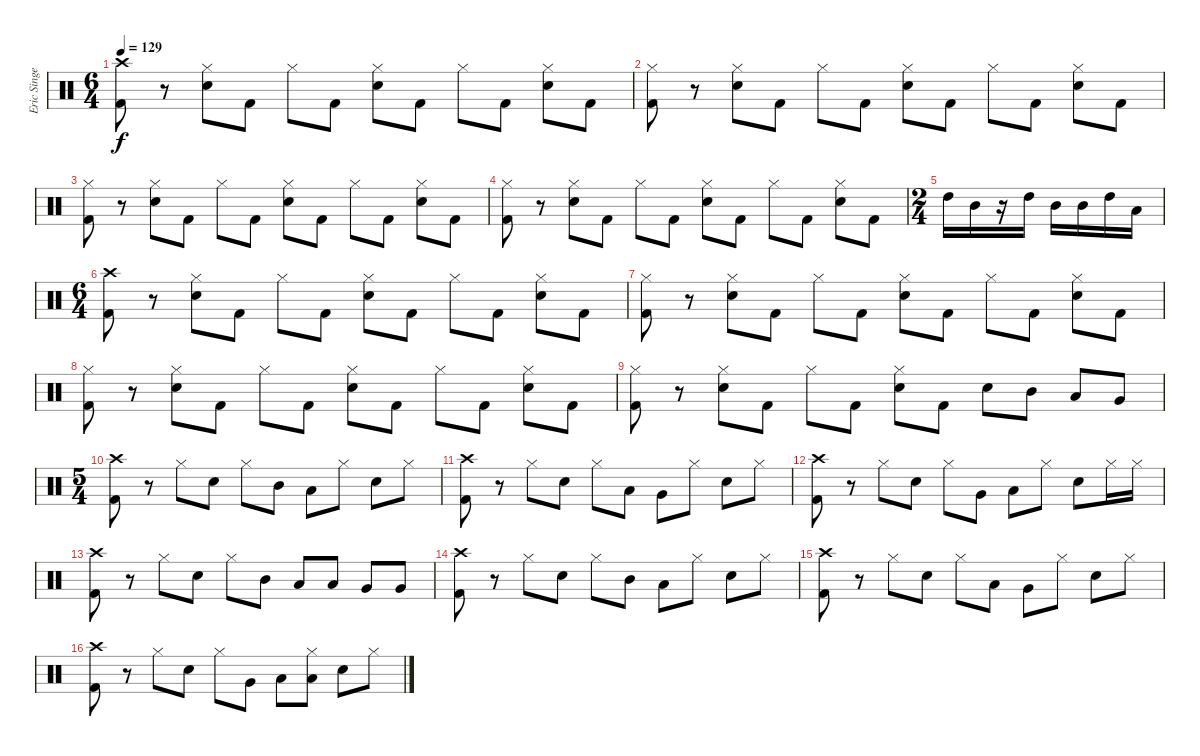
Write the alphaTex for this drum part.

\track ("Eric Singer" "Eric Singe") {instrument percussion}
\staff {score}
\articulation defaults
\ts (6 4)
\tempo 129
\clef neutral
\ks c
("Crash high (hit)" "Kick (hit) 2").8{dy f} r.8 ("Hi-Hat (closed)" "Electric Snare (hit)").8 "Kick (hit) 2".8 "Hi-Hat (closed)".8 "Kick (hit) 2".8 ("Hi-Hat (closed)" "Electric Snare (hit)").8 "Kick (hit) 2".8 "Hi-Hat (closed)".8 "Kick (hit) 2".8 ("Hi-Hat (closed)" "Electric Snare (hit)").8 "Kick (hit) 2".8 |
("Hi-Hat (closed)" "Kick (hit) 2").8 r.8 ("Hi-Hat (closed)" "Electric Snare (hit)").8 "Kick (hit) 2".8 "Hi-Hat (closed)".8 "Kick (hit) 2".8 ("Hi-Hat (closed)" "Electric Snare (hit)").8 "Kick (hit) 2".8 "Hi-Hat (closed)".8 "Kick (hit) 2".8 ("Hi-Hat (closed)" "Electric Snare (hit)").8 "Kick (hit) 2".8 |
("Hi-Hat (closed)" "Kick (hit) 2").8 r.8 ("Hi-Hat (closed)" "Electric Snare (hit)").8 "Kick (hit) 2".8 "Hi-Hat (closed)".8 "Kick (hit) 2".8 ("Hi-Hat (closed)" "Electric Snare (hit)").8 "Kick (hit) 2".8 "Hi-Hat (closed)".8 "Kick (hit) 2".8 ("Hi-Hat (closed)" "Electric Snare (hit)").8 "Kick (hit) 2".8 |
("Hi-Hat (closed)" "Kick (hit) 2").8 r.8 ("Hi-Hat (closed)" "Electric Snare (hit)").8 "Kick (hit) 2".8 "Hi-Hat (closed)".8 "Kick (hit) 2".8 ("Hi-Hat (closed)" "Electric Snare (hit)").8 "Kick (hit) 2".8 "Hi-Hat (closed)".8 "Kick (hit) 2".8 ("Hi-Hat (closed)" "Electric Snare (hit)").8 "Kick (hit) 2".8 |
\ts (2 4)
"High Tom (hit)".16 "Mid Tom (hit)".16 r.16 "High Tom (hit)".16 "Mid Tom (hit)".16 "Mid Tom (hit)".16 "High Tom (hit)".16 "Low Tom (hit)".16 |
\ts (6 4)
("Crash high (hit)" "Kick (hit) 2").8 r.8 ("Hi-Hat (closed)" "Electric Snare (hit)").8 "Kick (hit) 2".8 "Hi-Hat (closed)".8 "Kick (hit) 2".8 ("Hi-Hat (closed)" "Electric Snare (hit)").8 "Kick (hit) 2".8 "Hi-Hat (closed)".8 "Kick (hit) 2".8 ("Hi-Hat (closed)" "Electric Snare (hit)").8 "Kick (hit) 2".8 |
("Hi-Hat (closed)" "Kick (hit) 2").8 r.8 ("Hi-Hat (closed)" "Electric Snare (hit)").8 "Kick (hit) 2".8 "Hi-Hat (closed)".8 "Kick (hit) 2".8 ("Hi-Hat (closed)" "Electric Snare (hit)").8 "Kick (hit) 2".8 "Hi-Hat (closed)".8 "Kick (hit) 2".8 ("Hi-Hat (closed)" "Electric Snare (hit)").8 "Kick (hit) 2".8 |
("Hi-Hat (closed)" "Kick (hit) 2").8 r.8 ("Hi-Hat (closed)" "Electric Snare (hit)").8 "Kick (hit) 2".8 "Hi-Hat (closed)".8 "Kick (hit) 2".8 ("Hi-Hat (closed)" "Electric Snare (hit)").8 "Kick (hit) 2".8 "Hi-Hat (closed)".8 "Kick (hit) 2".8 ("Hi-Hat (closed)" "Electric Snare (hit)").8 "Kick (hit) 2".8 |
("Hi-Hat (closed)" "Kick (hit) 2").8 r.8 ("Hi-Hat (closed)" "Electric Snare (hit)").8 "Kick (hit) 2".8 "Hi-Hat (closed)".8 "Kick (hit) 2".8 ("Hi-Hat (closed)" "Electric Snare (hit)").8 "Kick (hit) 2".8 "Electric Snare (hit)".8 "Mid Tom (hit)".8 "Low Tom (hit)".8 "Very Low Tom (hit)".8 |
\ts (5 4)
("Crash high (hit)" "Kick (hit) 2").8 r.8 "Hi-Hat (closed)".8 "Electric Snare (hit)".8 "Hi-Hat (closed)".8 "Mid Tom (hit)".8 "Low Tom (hit)".8 "Hi-Hat (closed)".8 "Electric Snare (hit)".8 "Hi-Hat (closed)".8 |
("Crash high (hit)" "Kick (hit) 2").8 r.8 "Hi-Hat (closed)".8 "Electric Snare (hit)".8 "Hi-Hat (closed)".8 "Low Tom (hit)".8 "Very Low Tom (hit)".8 "Hi-Hat (closed)".8 "Electric Snare (hit)".8 "Hi-Hat (closed)".8 |
("Crash high (hit)" "Kick (hit) 2").8 r.8 "Hi-Hat (closed)".8 "Electric Snare (hit)".8 "Hi-Hat (closed)".8 "Very Low Tom (hit)".8 "Low Floor Tom (hit)".8 "Hi-Hat (closed)".8 "Electric Snare (hit)".8 "Hi-Hat (closed)".16 "Hi-Hat (closed)".16 |
("Crash high (hit)" "Kick (hit) 2").8 r.8 "Hi-Hat (closed)".8 "Electric Snare (hit)".8 "Hi-Hat (closed)".8 "Mid Tom (hit)".8 "Low Tom (hit)".8 "Low Tom (hit)".8 "Very Low Tom (hit)".8 "Very Low Tom (hit)".8 |
("Crash high (hit)" "Kick (hit) 2").8 r.8 "Hi-Hat (closed)".8 "Electric Snare (hit)".8 "Hi-Hat (closed)".8 "Mid Tom (hit)".8 "Low Tom (hit)".8 "Hi-Hat (closed)".8 "Electric Snare (hit)".8 "Hi-Hat (closed)".8 |
("Crash high (hit)" "Kick (hit) 2").8 r.8 "Hi-Hat (closed)".8 "Electric Snare (hit)".8 "Hi-Hat (closed)".8 "Low Tom (hit)".8 "Very Low Tom (hit)".8 "Hi-Hat (closed)".8 "Electric Snare (hit)".8 "Hi-Hat (closed)".8 |
("Crash high (hit)" "Kick (hit) 2").8 r.8 "Hi-Hat (closed)".8 "Electric Snare (hit)".8 "Hi-Hat (closed)".8 "Very Low Tom (hit)".8 "Low Floor Tom (hit)".8 ("Hi-Hat (closed)" "Low Floor Tom (hit)").8 "Electric Snare (hit)".8 "Hi-Hat (closed)".8
